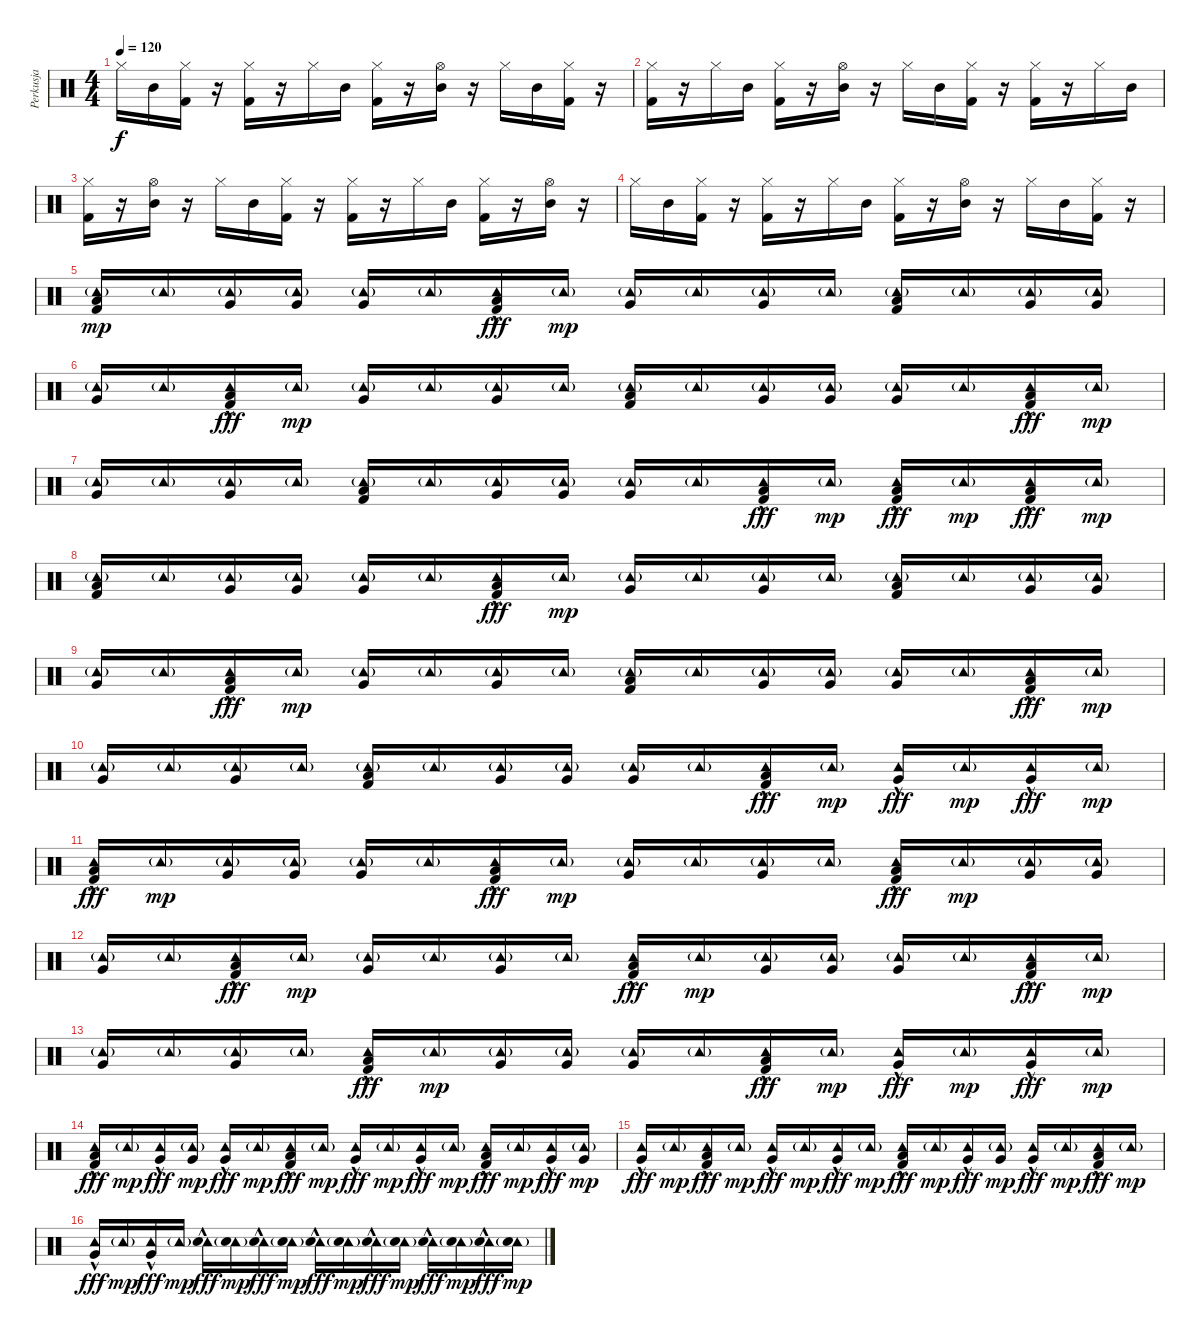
\track ("Perkusja" "Perkusja") {instrument percussion}
\staff {score}
\articulation defaults
\ts (4 4)
\tempo 120
\clef neutral
\ks c "Hi-Hat (closed)".16{dy f} "Mid Tom (hit)".16
("Hi-Hat (closed)" "Kick (hit) 2").16 r.16 ("Hi-Hat (closed)" "Kick (hit) 2").16 r.16 "Hi-Hat (closed)".16 "Mid Tom (hit)".16 ("Hi-Hat (closed)" "Kick (hit) 2").16 r.16 ("Hi-Hat (open)" "Mid Tom (hit)").16 r.16 "Hi-Hat (closed)".16 "Mid Tom (hit)".16 ("Hi-Hat (closed)" "Kick (hit) 2").16 r.16 |
("Hi-Hat (closed)" "Kick (hit) 2").16 r.16 "Hi-Hat (closed)".16 "Mid Tom (hit)".16 ("Hi-Hat (closed)" "Kick (hit) 2").16 r.16 ("Hi-Hat (open)" "Mid Tom (hit)").16 r.16 "Hi-Hat (closed)".16 "Mid Tom (hit)".16 ("Hi-Hat (closed)" "Kick (hit) 2").16 r.16 ("Hi-Hat (closed)" "Kick (hit) 2").16 r.16 "Hi-Hat (closed)".16 "Mid Tom (hit)".16 |
("Hi-Hat (closed)" "Kick (hit) 2").16 r.16 ("Hi-Hat (open)" "Mid Tom (hit)").16 r.16 "Hi-Hat (closed)".16 "Mid Tom (hit)".16 ("Hi-Hat (closed)" "Kick (hit) 2").16 r.16 ("Hi-Hat (closed)" "Kick (hit) 2").16 r.16 "Hi-Hat (closed)".16 "Mid Tom (hit)".16 ("Hi-Hat (closed)" "Kick (hit) 2").16 r.16 ("Hi-Hat (open)" "Mid Tom (hit)").16 r.16 |
"Hi-Hat (closed)".16 "Mid Tom (hit)".16 ("Hi-Hat (closed)" "Kick (hit) 2").16 r.16 ("Hi-Hat (closed)" "Kick (hit) 2").16 r.16 "Hi-Hat (closed)".16 "Mid Tom (hit)".16 ("Hi-Hat (closed)" "Kick (hit) 2").16 r.16 ("Hi-Hat (open)" "Mid Tom (hit)").16 r.16 "Hi-Hat (closed)".16 "Mid Tom (hit)".16 ("Hi-Hat (closed)" "Kick (hit) 2").16 r.16 |
("Tambourine (hit)"{g} "Low Tom (hit)" "Kick (hit) 2").16{dy mp} "Tambourine (hit)"{g}.16 ("Tambourine (hit)"{g} "Very Low Tom (hit)").16 ("Tambourine (hit)"{g} "Very Low Tom (hit)").16 ("Tambourine (hit)"{g} "Very Low Tom (hit)").16 "Tambourine (hit)"{g}.16 ("Tambourine (hit)"{hac} "Low Tom (hit)" "Kick (hit) 2").16{dy fff} "Tambourine (hit)"{g}.16{dy mp} ("Tambourine (hit)"{g} "Very Low Tom (hit)").16 "Tambourine (hit)"{g}.16 ("Tambourine (hit)"{g} "Very Low Tom (hit)").16 "Tambourine (hit)"{g}.16 ("Tambourine (hit)"{g} "Low Tom (hit)" "Kick (hit) 2").16 "Tambourine (hit)"{g}.16 ("Tambourine (hit)"{g} "Very Low Tom (hit)").16 ("Tambourine (hit)"{g} "Very Low Tom (hit)").16 |
("Tambourine (hit)"{g} "Very Low Tom (hit)").16 "Tambourine (hit)"{g}.16 ("Tambourine (hit)"{hac} "Low Tom (hit)" "Kick (hit) 2").16{dy fff} "Tambourine (hit)"{g}.16{dy mp} ("Tambourine (hit)"{g} "Very Low Tom (hit)").16 "Tambourine (hit)"{g}.16 ("Tambourine (hit)"{g} "Very Low Tom (hit)").16 "Tambourine (hit)"{g}.16 ("Tambourine (hit)"{g} "Low Tom (hit)" "Kick (hit) 2").16 "Tambourine (hit)"{g}.16 ("Tambourine (hit)"{g} "Very Low Tom (hit)").16 ("Tambourine (hit)"{g} "Very Low Tom (hit)").16 ("Tambourine (hit)"{g} "Very Low Tom (hit)").16 "Tambourine (hit)"{g}.16 ("Tambourine (hit)"{hac} "Low Tom (hit)" "Kick (hit) 2").16{dy fff} "Tambourine (hit)"{g}.16{dy mp} |
("Tambourine (hit)"{g} "Very Low Tom (hit)").16 "Tambourine (hit)"{g}.16 ("Tambourine (hit)"{g} "Very Low Tom (hit)").16 "Tambourine (hit)"{g}.16 ("Tambourine (hit)"{g} "Low Tom (hit)" "Kick (hit) 2").16 "Tambourine (hit)"{g}.16 ("Tambourine (hit)"{g} "Very Low Tom (hit)").16 ("Tambourine (hit)"{g} "Very Low Tom (hit)").16 ("Tambourine (hit)"{g} "Very Low Tom (hit)").16 "Tambourine (hit)"{g}.16 ("Tambourine (hit)"{hac} "Low Tom (hit)" "Kick (hit) 2").16{dy fff} "Tambourine (hit)"{g}.16{dy mp} ("Tambourine (hit)"{hac} "Low Tom (hit)" "Kick (hit) 2").16{dy fff} "Tambourine (hit)"{g}.16{dy mp} ("Tambourine (hit)"{hac} "Low Tom (hit)" "Kick (hit) 2").16{dy fff} "Tambourine (hit)"{g}.16{dy mp} |
("Tambourine (hit)"{g} "Low Tom (hit)" "Kick (hit) 2").16 "Tambourine (hit)"{g}.16 ("Tambourine (hit)"{g} "Very Low Tom (hit)").16 ("Tambourine (hit)"{g} "Very Low Tom (hit)").16 ("Tambourine (hit)"{g} "Very Low Tom (hit)").16 "Tambourine (hit)"{g}.16 ("Tambourine (hit)"{hac} "Low Tom (hit)" "Kick (hit) 2").16{dy fff} "Tambourine (hit)"{g}.16{dy mp} ("Tambourine (hit)"{g} "Very Low Tom (hit)").16 "Tambourine (hit)"{g}.16 ("Tambourine (hit)"{g} "Very Low Tom (hit)").16 "Tambourine (hit)"{g}.16 ("Tambourine (hit)"{g} "Low Tom (hit)" "Kick (hit) 2").16 "Tambourine (hit)"{g}.16 ("Tambourine (hit)"{g} "Very Low Tom (hit)").16 ("Tambourine (hit)"{g} "Very Low Tom (hit)").16 |
("Tambourine (hit)"{g} "Very Low Tom (hit)").16 "Tambourine (hit)"{g}.16 ("Tambourine (hit)"{hac} "Low Tom (hit)" "Kick (hit) 2").16{dy fff} "Tambourine (hit)"{g}.16{dy mp} ("Tambourine (hit)"{g} "Very Low Tom (hit)").16 "Tambourine (hit)"{g}.16 ("Tambourine (hit)"{g} "Very Low Tom (hit)").16 "Tambourine (hit)"{g}.16 ("Tambourine (hit)"{g} "Low Tom (hit)" "Kick (hit) 2").16 "Tambourine (hit)"{g}.16 ("Tambourine (hit)"{g} "Very Low Tom (hit)").16 ("Tambourine (hit)"{g} "Very Low Tom (hit)").16 ("Tambourine (hit)"{g} "Very Low Tom (hit)").16 "Tambourine (hit)"{g}.16 ("Tambourine (hit)"{hac} "Low Tom (hit)" "Kick (hit) 2").16{dy fff} "Tambourine (hit)"{g}.16{dy mp} |
("Tambourine (hit)"{g} "Very Low Tom (hit)").16 "Tambourine (hit)"{g}.16 ("Tambourine (hit)"{g} "Very Low Tom (hit)").16 "Tambourine (hit)"{g}.16 ("Tambourine (hit)"{g} "Low Tom (hit)" "Kick (hit) 2").16 "Tambourine (hit)"{g}.16 ("Tambourine (hit)"{g} "Very Low Tom (hit)").16 ("Tambourine (hit)"{g} "Very Low Tom (hit)").16 ("Tambourine (hit)"{g} "Very Low Tom (hit)").16 "Tambourine (hit)"{g}.16 ("Tambourine (hit)"{hac} "Low Tom (hit)" "Kick (hit) 2").16{dy fff} "Tambourine (hit)"{g}.16{dy mp} ("Tambourine (hit)"{hac} "Very Low Tom (hit)").16{dy fff} "Tambourine (hit)"{g}.16{dy mp} ("Tambourine (hit)"{hac} "Very Low Tom (hit)").16{dy fff} "Tambourine (hit)"{g}.16{dy mp} |
("Tambourine (hit)"{hac} "Low Tom (hit)" "Kick (hit) 2").16{dy fff} "Tambourine (hit)"{g}.16{dy mp} ("Tambourine (hit)"{g} "Very Low Tom (hit)").16 ("Tambourine (hit)"{g} "Very Low Tom (hit)").16 ("Tambourine (hit)"{g} "Very Low Tom (hit)").16 "Tambourine (hit)"{g}.16 ("Tambourine (hit)"{hac} "Low Tom (hit)" "Kick (hit) 2").16{dy fff} "Tambourine (hit)"{g}.16{dy mp} ("Tambourine (hit)"{g} "Very Low Tom (hit)").16 "Tambourine (hit)"{g}.16 ("Tambourine (hit)"{g} "Very Low Tom (hit)").16 "Tambourine (hit)"{g}.16 ("Tambourine (hit)"{hac} "Low Tom (hit)" "Kick (hit) 2").16{dy fff} "Tambourine (hit)"{g}.16{dy mp} ("Tambourine (hit)"{g} "Very Low Tom (hit)").16 ("Tambourine (hit)"{g} "Very Low Tom (hit)").16 |
("Tambourine (hit)"{g} "Very Low Tom (hit)").16 "Tambourine (hit)"{g}.16 ("Tambourine (hit)"{hac} "Low Tom (hit)" "Kick (hit) 2").16{dy fff} "Tambourine (hit)"{g}.16{dy mp} ("Tambourine (hit)"{g} "Very Low Tom (hit)").16 "Tambourine (hit)"{g}.16 ("Tambourine (hit)"{g} "Very Low Tom (hit)").16 "Tambourine (hit)"{g}.16 ("Tambourine (hit)"{hac} "Low Tom (hit)" "Kick (hit) 2").16{dy fff} "Tambourine (hit)"{g}.16{dy mp} ("Tambourine (hit)"{g} "Very Low Tom (hit)").16 ("Tambourine (hit)"{g} "Very Low Tom (hit)").16 ("Tambourine (hit)"{g} "Very Low Tom (hit)").16 "Tambourine (hit)"{g}.16 ("Tambourine (hit)"{hac} "Low Tom (hit)" "Kick (hit) 2").16{dy fff} "Tambourine (hit)"{g}.16{dy mp} |
("Tambourine (hit)"{g} "Very Low Tom (hit)").16 "Tambourine (hit)"{g}.16 ("Tambourine (hit)"{g} "Very Low Tom (hit)").16 "Tambourine (hit)"{g}.16 ("Tambourine (hit)"{hac} "Low Tom (hit)" "Kick (hit) 2").16{dy fff} "Tambourine (hit)"{g}.16{dy mp} ("Tambourine (hit)"{g} "Very Low Tom (hit)").16 ("Tambourine (hit)"{g} "Very Low Tom (hit)").16 ("Tambourine (hit)"{g} "Very Low Tom (hit)").16 "Tambourine (hit)"{g}.16 ("Tambourine (hit)"{hac} "Low Tom (hit)" "Kick (hit) 2").16{dy fff} "Tambourine (hit)"{g}.16{dy mp} ("Tambourine (hit)"{hac} "Very Low Tom (hit)").16{dy fff} "Tambourine (hit)"{g}.16{dy mp} ("Tambourine (hit)"{hac} "Very Low Tom (hit)").16{dy fff} "Tambourine (hit)"{g}.16{dy mp} |
("Tambourine (hit)"{hac} "Low Tom (hit)" "Kick (hit) 2").16{dy fff} "Tambourine (hit)"{g}.16{dy mp} ("Tambourine (hit)"{hac} "Very Low Tom (hit)").16{dy fff} ("Tambourine (hit)"{g} "Very Low Tom (hit)").16{dy mp} ("Tambourine (hit)"{hac} "Very Low Tom (hit)").16{dy fff} "Tambourine (hit)"{g}.16{dy mp} ("Tambourine (hit)"{hac} "Low Tom (hit)" "Kick (hit) 2").16{dy fff} "Tambourine (hit)"{g}.16{dy mp} ("Tambourine (hit)"{hac} "Very Low Tom (hit)").16{dy fff} "Tambourine (hit)"{g}.16{dy mp} ("Tambourine (hit)"{hac} "Very Low Tom (hit)").16{dy fff} "Tambourine (hit)"{g}.16{dy mp} ("Tambourine (hit)"{hac} "Low Tom (hit)" "Kick (hit) 2").16{dy fff} "Tambourine (hit)"{g}.16{dy mp} ("Tambourine (hit)"{hac} "Very Low Tom (hit)").16{dy fff} ("Tambourine (hit)"{g} "Very Low Tom (hit)").16{dy mp} |
("Tambourine (hit)"{hac} "Very Low Tom (hit)").16{dy fff} "Tambourine (hit)"{g}.16{dy mp} ("Tambourine (hit)"{hac} "Low Tom (hit)" "Kick (hit) 2").16{dy fff} "Tambourine (hit)"{g}.16{dy mp} ("Tambourine (hit)"{hac} "Very Low Tom (hit)").16{dy fff} "Tambourine (hit)"{g}.16{dy mp} ("Tambourine (hit)"{hac} "Very Low Tom (hit)").16{dy fff} "Tambourine (hit)"{g}.16{dy mp} ("Tambourine (hit)"{hac} "Low Tom (hit)" "Kick (hit) 2").16{dy fff} "Tambourine (hit)"{g}.16{dy mp} ("Tambourine (hit)"{hac} "Very Low Tom (hit)").16{dy fff} ("Tambourine (hit)"{g} "Very Low Tom (hit)").16{dy mp} ("Tambourine (hit)"{hac} "Very Low Tom (hit)").16{dy fff} "Tambourine (hit)"{g}.16{dy mp} ("Tambourine (hit)"{hac} "Low Tom (hit)" "Kick (hit) 2").16{dy fff} "Tambourine (hit)"{g}.16{dy mp} |
("Tambourine (hit)"{hac} "Very Low Tom (hit)").16{dy fff} "Tambourine (hit)"{g}.16{dy mp} ("Tambourine (hit)"{hac} "Very Low Tom (hit)").16{dy fff} "Tambourine (hit)"{g}.16{dy mp} ("Tambourine (hit)"{hac} "Electric Snare (hit)").16{dy fff} ("Tambourine (hit)"{g} "Electric Snare (hit)").16{dy mp} ("Tambourine (hit)"{hac} "Electric Snare (hit)").16{dy fff} ("Tambourine (hit)"{g} "Electric Snare (hit)").16{dy mp} ("Tambourine (hit)"{hac} "Electric Snare (hit)").16{dy fff} ("Tambourine (hit)"{g} "Electric Snare (hit)").16{dy mp} ("Tambourine (hit)"{hac} "Electric Snare (hit)").16{dy fff} ("Tambourine (hit)"{g} "Electric Snare (hit)").16{dy mp} ("Tambourine (hit)"{hac} "Electric Snare (hit)").16{dy fff} ("Tambourine (hit)"{g} "Electric Snare (hit)").16{dy mp} ("Tambourine (hit)"{hac} "Electric Snare (hit)").16{dy fff} ("Tambourine (hit)"{g} "Electric Snare (hit)").16{dy mp}
